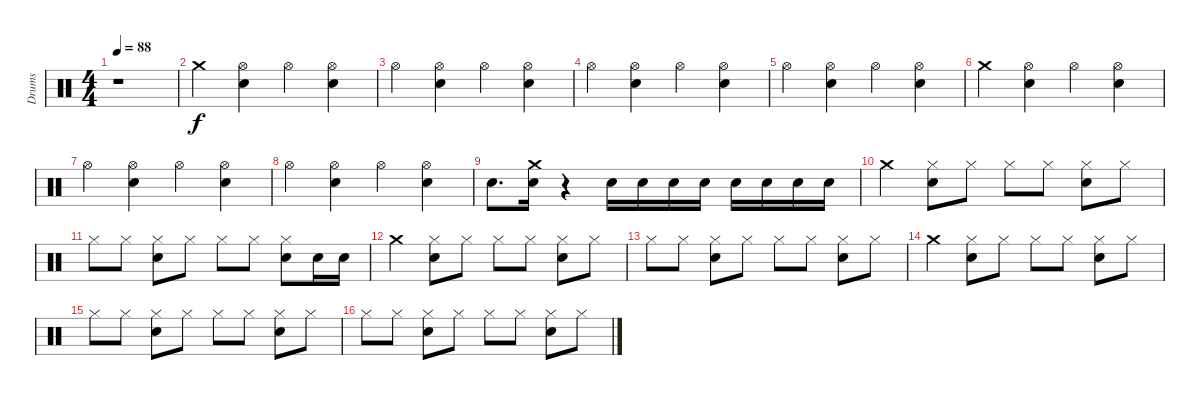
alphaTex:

\track ("Drums" "Drums") {instrument percussion}
\staff {score}
\articulation defaults
\ts (4 4)
\tempo 88
\clef neutral
\ks c
r.1{dy f} |
"Crash medium (hit)".4 ("Hi-Hat (open)" "Electric Snare (hit)").4 "Hi-Hat (open)".4 ("Hi-Hat (open)" "Electric Snare (hit)").4 |
"Hi-Hat (open)".4 ("Hi-Hat (open)" "Electric Snare (hit)").4 "Hi-Hat (open)".4 ("Hi-Hat (open)" "Electric Snare (hit)").4 |
"Hi-Hat (open)".4 ("Hi-Hat (open)" "Electric Snare (hit)").4 "Hi-Hat (open)".4 ("Hi-Hat (open)" "Electric Snare (hit)").4 |
"Hi-Hat (open)".4 ("Hi-Hat (open)" "Electric Snare (hit)").4 "Hi-Hat (open)".4 ("Hi-Hat (open)" "Electric Snare (hit)").4 |
"Crash medium (hit)".4 ("Hi-Hat (open)" "Electric Snare (hit)").4 "Hi-Hat (open)".4 ("Hi-Hat (open)" "Electric Snare (hit)").4 |
"Hi-Hat (open)".4 ("Hi-Hat (open)" "Electric Snare (hit)").4 "Hi-Hat (open)".4 ("Hi-Hat (open)" "Electric Snare (hit)").4 |
"Hi-Hat (open)".4 ("Hi-Hat (open)" "Electric Snare (hit)").4 "Hi-Hat (open)".4 ("Hi-Hat (open)" "Electric Snare (hit)").4 |
"Electric Snare (hit)".8{d} ("Electric Snare (hit)" "Crash medium (hit)").16 r.4 "Electric Snare (hit)".16 "Electric Snare (hit)".16 "Electric Snare (hit)".16 "Electric Snare (hit)".16 "Electric Snare (hit)".16 "Electric Snare (hit)".16 "Electric Snare (hit)".16 "Electric Snare (hit)".16 |
"Crash medium (hit)".4 ("Hi-Hat (closed)" "Electric Snare (hit)").8 "Hi-Hat (closed)".8 "Hi-Hat (closed)".8 "Hi-Hat (closed)".8 ("Hi-Hat (closed)" "Electric Snare (hit)").8 "Hi-Hat (closed)".8 |
"Hi-Hat (closed)".8 "Hi-Hat (closed)".8 ("Hi-Hat (closed)" "Electric Snare (hit)").8 "Hi-Hat (closed)".8 "Hi-Hat (closed)".8 "Hi-Hat (closed)".8 ("Hi-Hat (closed)" "Electric Snare (hit)").8 "Electric Snare (hit)".16 "Electric Snare (hit)".16 |
"Crash medium (hit)".4 ("Hi-Hat (closed)" "Electric Snare (hit)").8 "Hi-Hat (closed)".8 "Hi-Hat (closed)".8 "Hi-Hat (closed)".8 ("Hi-Hat (closed)" "Electric Snare (hit)").8 "Hi-Hat (closed)".8 |
"Hi-Hat (closed)".8 "Hi-Hat (closed)".8 ("Hi-Hat (closed)" "Electric Snare (hit)").8 "Hi-Hat (closed)".8 "Hi-Hat (closed)".8 "Hi-Hat (closed)".8 ("Hi-Hat (closed)" "Electric Snare (hit)").8 "Hi-Hat (closed)".8 |
"Crash medium (hit)".4 ("Hi-Hat (closed)" "Electric Snare (hit)").8 "Hi-Hat (closed)".8 "Hi-Hat (closed)".8 "Hi-Hat (closed)".8 ("Hi-Hat (closed)" "Electric Snare (hit)").8 "Hi-Hat (closed)".8 |
"Hi-Hat (closed)".8 "Hi-Hat (closed)".8 ("Hi-Hat (closed)" "Electric Snare (hit)").8 "Hi-Hat (closed)".8 "Hi-Hat (closed)".8 "Hi-Hat (closed)".8 ("Hi-Hat (closed)" "Electric Snare (hit)").8 "Hi-Hat (closed)".8 |
"Hi-Hat (closed)".8 "Hi-Hat (closed)".8 ("Hi-Hat (closed)" "Electric Snare (hit)").8 "Hi-Hat (closed)".8 "Hi-Hat (closed)".8 "Hi-Hat (closed)".8 ("Hi-Hat (closed)" "Electric Snare (hit)").8 "Hi-Hat (closed)".8
